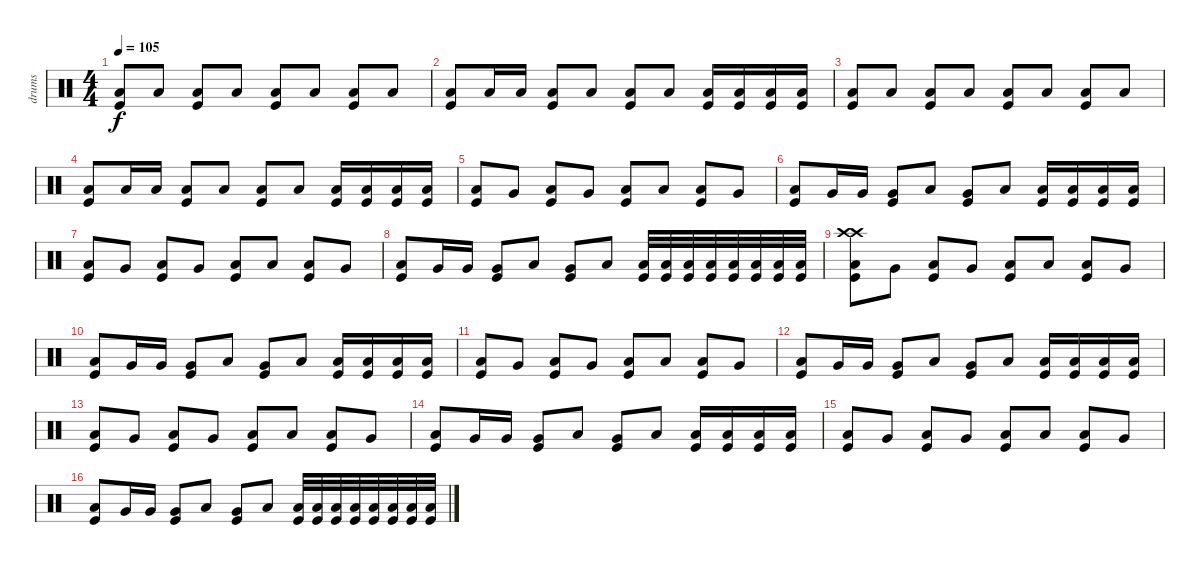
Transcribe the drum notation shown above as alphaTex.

\track ("drums" "drums") {instrument percussion}
\staff {score}
\articulation defaults
\ts (4 4)
\tempo 105
\clef neutral
\ks c
("Kick (hit)" "Low Floor Tom (hit)").8{dy f} "Low Floor Tom (hit)".8 ("Kick (hit)" "Low Floor Tom (hit)").8 "Low Floor Tom (hit)".8 ("Kick (hit)" "Low Floor Tom (hit)").8 "Low Floor Tom (hit)".8 ("Kick (hit)" "Low Floor Tom (hit)").8 "Low Floor Tom (hit)".8 |
("Low Floor Tom (hit)" "Kick (hit)").8 "Low Floor Tom (hit)".16 "Low Floor Tom (hit)".16 ("Low Floor Tom (hit)" "Kick (hit)").8 "Low Floor Tom (hit)".8 ("Low Floor Tom (hit)" "Kick (hit)").8 "Low Floor Tom (hit)".8 ("Low Floor Tom (hit)" "Kick (hit)").16 ("Low Floor Tom (hit)" "Kick (hit)").16 ("Low Floor Tom (hit)" "Kick (hit)").16 ("Low Floor Tom (hit)" "Kick (hit)").16 |
("Low Floor Tom (hit)" "Kick (hit)").8 "Low Floor Tom (hit)".8 ("Low Floor Tom (hit)" "Kick (hit)").8 "Low Floor Tom (hit)".8 ("Low Floor Tom (hit)" "Kick (hit)").8 "Low Floor Tom (hit)".8 ("Low Floor Tom (hit)" "Kick (hit)").8 "Low Floor Tom (hit)".8 |
("Low Floor Tom (hit)" "Kick (hit)").8 "Low Floor Tom (hit)".16 "Low Floor Tom (hit)".16 ("Low Floor Tom (hit)" "Kick (hit)").8 "Low Floor Tom (hit)".8 ("Low Floor Tom (hit)" "Kick (hit)").8 "Low Floor Tom (hit)".8 ("Low Floor Tom (hit)" "Kick (hit)").16 ("Low Floor Tom (hit)" "Kick (hit)").16 ("Low Floor Tom (hit)" "Kick (hit)").16 ("Low Floor Tom (hit)" "Kick (hit)").16 |
("Kick (hit)" "Low Floor Tom (hit)").8 "Very Low Tom (hit)".8 ("Kick (hit)" "Low Floor Tom (hit)").8 "Very Low Tom (hit)".8 ("Kick (hit)" "Low Floor Tom (hit)").8 "Low Floor Tom (hit)".8 ("Kick (hit)" "Low Floor Tom (hit)").8 "Very Low Tom (hit)".8 |
("Low Floor Tom (hit)" "Kick (hit)").8 "Very Low Tom (hit)".16 "Very Low Tom (hit)".16 ("Very Low Tom (hit)" "Kick (hit)").8 "Low Floor Tom (hit)".8 ("Very Low Tom (hit)" "Kick (hit)").8 "Low Floor Tom (hit)".8 ("Low Floor Tom (hit)" "Kick (hit)").16 ("Low Floor Tom (hit)" "Kick (hit)").16 ("Low Floor Tom (hit)" "Kick (hit)").16 ("Low Floor Tom (hit)" "Kick (hit)").16 |
("Low Floor Tom (hit)" "Kick (hit)").8 "Very Low Tom (hit)".8 ("Low Floor Tom (hit)" "Kick (hit)").8 "Very Low Tom (hit)".8 ("Low Floor Tom (hit)" "Kick (hit)").8 "Low Floor Tom (hit)".8 ("Low Floor Tom (hit)" "Kick (hit)").8 "Very Low Tom (hit)".8 |
("Low Floor Tom (hit)" "Kick (hit)").8 "Very Low Tom (hit)".16 "Very Low Tom (hit)".16 ("Very Low Tom (hit)" "Kick (hit)").8 "Low Floor Tom (hit)".8 ("Very Low Tom (hit)" "Kick (hit)").8 "Low Floor Tom (hit)".8 ("Low Tom (hit)" "Kick (hit)").32 ("Low Tom (hit)" "Kick (hit)").32 ("Low Tom (hit)" "Kick (hit)").32 ("Low Tom (hit)" "Kick (hit)").32 ("Low Floor Tom (hit)" "Kick (hit)").32 ("Low Floor Tom (hit)" "Kick (hit)").32 ("Low Floor Tom (hit)" "Kick (hit)").32 ("Low Floor Tom (hit)" "Kick (hit)").32 |
("Kick (hit)" "Crash high (hit)" "Crash high (hit)" "Low Floor Tom (hit)").8 "Very Low Tom (hit)".8 ("Kick (hit)" "Low Floor Tom (hit)").8 "Very Low Tom (hit)".8 ("Kick (hit)" "Low Floor Tom (hit)").8 "Low Floor Tom (hit)".8 ("Kick (hit)" "Low Floor Tom (hit)").8 "Very Low Tom (hit)".8 |
("Low Floor Tom (hit)" "Kick (hit)").8 "Very Low Tom (hit)".16 "Very Low Tom (hit)".16 ("Very Low Tom (hit)" "Kick (hit)").8 "Low Floor Tom (hit)".8 ("Very Low Tom (hit)" "Kick (hit)").8 "Low Floor Tom (hit)".8 ("Low Floor Tom (hit)" "Kick (hit)").16 ("Low Floor Tom (hit)" "Kick (hit)").16 ("Low Floor Tom (hit)" "Kick (hit)").16 ("Low Floor Tom (hit)" "Kick (hit)").16 |
("Low Floor Tom (hit)" "Kick (hit)").8 "Very Low Tom (hit)".8 ("Low Floor Tom (hit)" "Kick (hit)").8 "Very Low Tom (hit)".8 ("Low Floor Tom (hit)" "Kick (hit)").8 "Low Floor Tom (hit)".8 ("Low Floor Tom (hit)" "Kick (hit)").8 "Very Low Tom (hit)".8 |
("Low Floor Tom (hit)" "Kick (hit)").8 "Very Low Tom (hit)".16 "Very Low Tom (hit)".16 ("Very Low Tom (hit)" "Kick (hit)").8 "Low Floor Tom (hit)".8 ("Very Low Tom (hit)" "Kick (hit)").8 "Low Floor Tom (hit)".8 ("Low Floor Tom (hit)" "Kick (hit)").16 ("Low Floor Tom (hit)" "Kick (hit)").16 ("Low Floor Tom (hit)" "Kick (hit)").16 ("Low Floor Tom (hit)" "Kick (hit)").16 |
("Kick (hit)" "Low Floor Tom (hit)").8 "Very Low Tom (hit)".8 ("Kick (hit)" "Low Floor Tom (hit)").8 "Very Low Tom (hit)".8 ("Kick (hit)" "Low Floor Tom (hit)").8 "Low Floor Tom (hit)".8 ("Kick (hit)" "Low Floor Tom (hit)").8 "Very Low Tom (hit)".8 |
("Low Floor Tom (hit)" "Kick (hit)").8 "Very Low Tom (hit)".16 "Very Low Tom (hit)".16 ("Very Low Tom (hit)" "Kick (hit)").8 "Low Floor Tom (hit)".8 ("Very Low Tom (hit)" "Kick (hit)").8 "Low Floor Tom (hit)".8 ("Low Floor Tom (hit)" "Kick (hit)").16 ("Low Floor Tom (hit)" "Kick (hit)").16 ("Low Floor Tom (hit)" "Kick (hit)").16 ("Low Floor Tom (hit)" "Kick (hit)").16 |
("Low Floor Tom (hit)" "Kick (hit)").8 "Very Low Tom (hit)".8 ("Low Floor Tom (hit)" "Kick (hit)").8 "Very Low Tom (hit)".8 ("Low Floor Tom (hit)" "Kick (hit)").8 "Low Floor Tom (hit)".8 ("Low Floor Tom (hit)" "Kick (hit)").8 "Very Low Tom (hit)".8 |
("Low Floor Tom (hit)" "Kick (hit)").8 "Very Low Tom (hit)".16 "Very Low Tom (hit)".16 ("Very Low Tom (hit)" "Kick (hit)").8 "Low Floor Tom (hit)".8 ("Very Low Tom (hit)" "Kick (hit)").8 "Low Floor Tom (hit)".8 ("Low Tom (hit)" "Kick (hit)").32 ("Low Tom (hit)" "Kick (hit)").32 ("Low Tom (hit)" "Kick (hit)").32 ("Low Tom (hit)" "Kick (hit)").32 ("Low Floor Tom (hit)" "Kick (hit)").32 ("Low Floor Tom (hit)" "Kick (hit)").32 ("Low Floor Tom (hit)" "Kick (hit)").32 ("Low Floor Tom (hit)" "Kick (hit)").32
